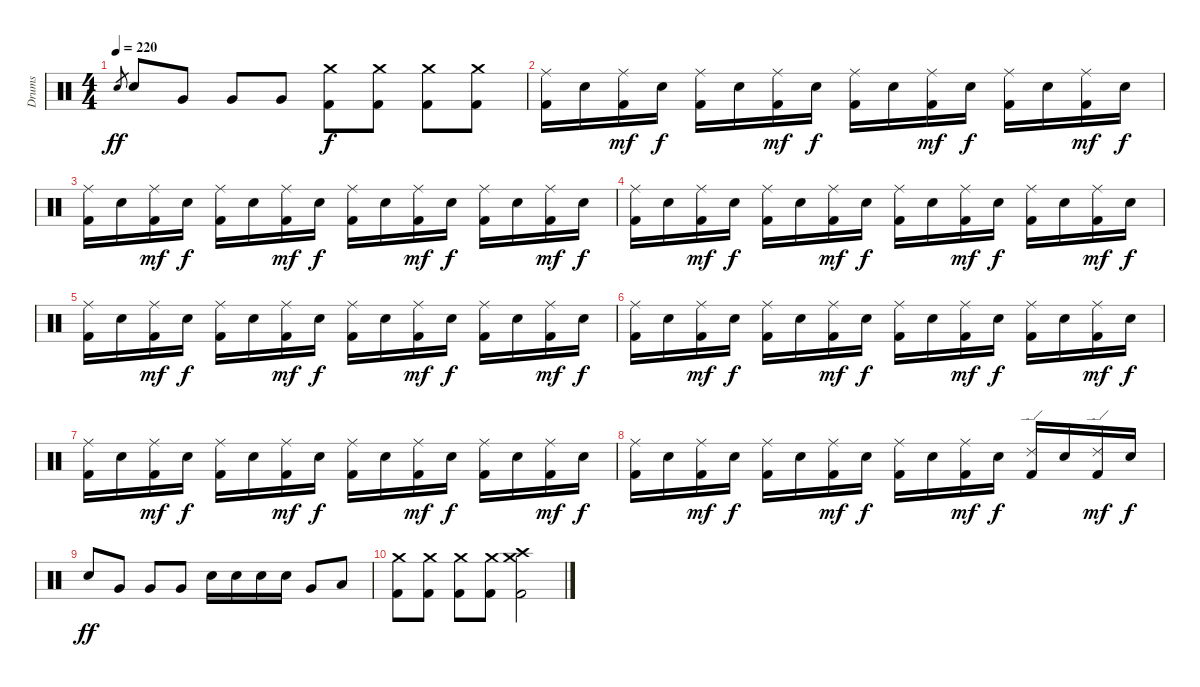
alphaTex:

\track ("Drums" "Drums") {instrument percussion}
\staff {score}
\articulation defaults
\ts (4 4)
\tempo 220
\clef neutral
\ks c "Snare (hit) 2".8{gr dy ff} "Snare (hit) 2".8 "Very Low Tom (hit)".8 "Very Low Tom (hit)".8 "Very Low Tom (hit)".8
("Crash medium (hit)" "Kick (hit) 2").8{dy f} ("Crash medium (hit)" "Kick (hit) 2").8 ("Crash medium (hit)" "Kick (hit) 2").8 ("Crash medium (hit)" "Kick (hit) 2").8 |
("Ride (middle)" "Kick (hit) 2").16 "Snare (hit) 2".16 ("Ride (middle)" "Kick (hit) 2").16{dy mf} "Snare (hit) 2".16{dy f} ("Ride (middle)" "Kick (hit) 2").16 "Snare (hit) 2".16 ("Ride (middle)" "Kick (hit) 2").16{dy mf} "Snare (hit) 2".16{dy f} ("Ride (middle)" "Kick (hit) 2").16 "Snare (hit) 2".16 ("Ride (middle)" "Kick (hit) 2").16{dy mf} "Snare (hit) 2".16{dy f} ("Ride (middle)" "Kick (hit) 2").16 "Snare (hit) 2".16 ("Ride (middle)" "Kick (hit) 2").16{dy mf} "Snare (hit) 2".16{dy f} |
("Ride (middle)" "Kick (hit) 2").16 "Snare (hit) 2".16 ("Ride (middle)" "Kick (hit) 2").16{dy mf} "Snare (hit) 2".16{dy f} ("Ride (middle)" "Kick (hit) 2").16 "Snare (hit) 2".16 ("Ride (middle)" "Kick (hit) 2").16{dy mf} "Snare (hit) 2".16{dy f} ("Ride (middle)" "Kick (hit) 2").16 "Snare (hit) 2".16 ("Ride (middle)" "Kick (hit) 2").16{dy mf} "Snare (hit) 2".16{dy f} ("Ride (middle)" "Kick (hit) 2").16 "Snare (hit) 2".16 ("Ride (middle)" "Kick (hit) 2").16{dy mf} "Snare (hit) 2".16{dy f} |
("Ride (middle)" "Kick (hit) 2").16 "Snare (hit) 2".16 ("Ride (middle)" "Kick (hit) 2").16{dy mf} "Snare (hit) 2".16{dy f} ("Ride (middle)" "Kick (hit) 2").16 "Snare (hit) 2".16 ("Ride (middle)" "Kick (hit) 2").16{dy mf} "Snare (hit) 2".16{dy f} ("Ride (middle)" "Kick (hit) 2").16 "Snare (hit) 2".16 ("Ride (middle)" "Kick (hit) 2").16{dy mf} "Snare (hit) 2".16{dy f} ("Ride (middle)" "Kick (hit) 2").16 "Snare (hit) 2".16 ("Ride (middle)" "Kick (hit) 2").16{dy mf} "Snare (hit) 2".16{dy f} |
("Ride (middle)" "Kick (hit) 2").16 "Snare (hit) 2".16 ("Ride (middle)" "Kick (hit) 2").16{dy mf} "Snare (hit) 2".16{dy f} ("Ride (middle)" "Kick (hit) 2").16 "Snare (hit) 2".16 ("Ride (middle)" "Kick (hit) 2").16{dy mf} "Snare (hit) 2".16{dy f} ("Ride (middle)" "Kick (hit) 2").16 "Snare (hit) 2".16 ("Ride (middle)" "Kick (hit) 2").16{dy mf} "Snare (hit) 2".16{dy f} ("Ride (middle)" "Kick (hit) 2").16 "Snare (hit) 2".16 ("Ride (middle)" "Kick (hit) 2").16{dy mf} "Snare (hit) 2".16{dy f} |
("Ride (middle)" "Kick (hit) 2").16 "Snare (hit) 2".16 ("Ride (middle)" "Kick (hit) 2").16{dy mf} "Snare (hit) 2".16{dy f} ("Ride (middle)" "Kick (hit) 2").16 "Snare (hit) 2".16 ("Ride (middle)" "Kick (hit) 2").16{dy mf} "Snare (hit) 2".16{dy f} ("Ride (middle)" "Kick (hit) 2").16 "Snare (hit) 2".16 ("Ride (middle)" "Kick (hit) 2").16{dy mf} "Snare (hit) 2".16{dy f} ("Ride (middle)" "Kick (hit) 2").16 "Snare (hit) 2".16 ("Ride (middle)" "Kick (hit) 2").16{dy mf} "Snare (hit) 2".16{dy f} |
("Ride (middle)" "Kick (hit) 2").16 "Snare (hit) 2".16 ("Ride (middle)" "Kick (hit) 2").16{dy mf} "Snare (hit) 2".16{dy f} ("Ride (middle)" "Kick (hit) 2").16 "Snare (hit) 2".16 ("Ride (middle)" "Kick (hit) 2").16{dy mf} "Snare (hit) 2".16{dy f} ("Ride (middle)" "Kick (hit) 2").16 "Snare (hit) 2".16 ("Ride (middle)" "Kick (hit) 2").16{dy mf} "Snare (hit) 2".16{dy f} ("Ride (middle)" "Kick (hit) 2").16 "Snare (hit) 2".16 ("Ride (middle)" "Kick (hit) 2").16{dy mf} "Snare (hit) 2".16{dy f} |
("Ride (middle)" "Kick (hit) 2").16 "Snare (hit) 2".16 ("Ride (middle)" "Kick (hit) 2").16{dy mf} "Snare (hit) 2".16{dy f} ("Ride (middle)" "Kick (hit) 2").16 "Snare (hit) 2".16 ("Ride (middle)" "Kick (hit) 2").16{dy mf} "Snare (hit) 2".16{dy f} ("Ride (middle)" "Kick (hit) 2").16 "Snare (hit) 2".16 ("Ride (middle)" "Kick (hit) 2").16{dy mf} "Snare (hit) 2".16{dy f} ("Ride (edge) 2" "Kick (hit) 2").16 "Snare (hit) 2".16 ("Ride (edge) 2" "Kick (hit) 2").16{dy mf} "Snare (hit) 2".16{dy f} |
"Snare (hit) 2".8{dy ff} "Very Low Tom (hit)".8 "Very Low Tom (hit)".8 "Very Low Tom (hit)".8 "Snare (hit) 2".16 "Snare (hit) 2".16 "Snare (hit) 2".16 "Snare (hit) 2".16 "Very Low Tom (hit)".8 "Low Floor Tom (hit)".8 |
("Crash medium (hit)" "Kick (hit) 2").8 ("Crash medium (hit)" "Kick (hit) 2").8 ("Crash medium (hit)" "Kick (hit) 2").8 ("Crash medium (hit)" "Kick (hit) 2").8 ("Crash medium (hit)" "Crash high (hit)" "Kick (hit) 2").2
